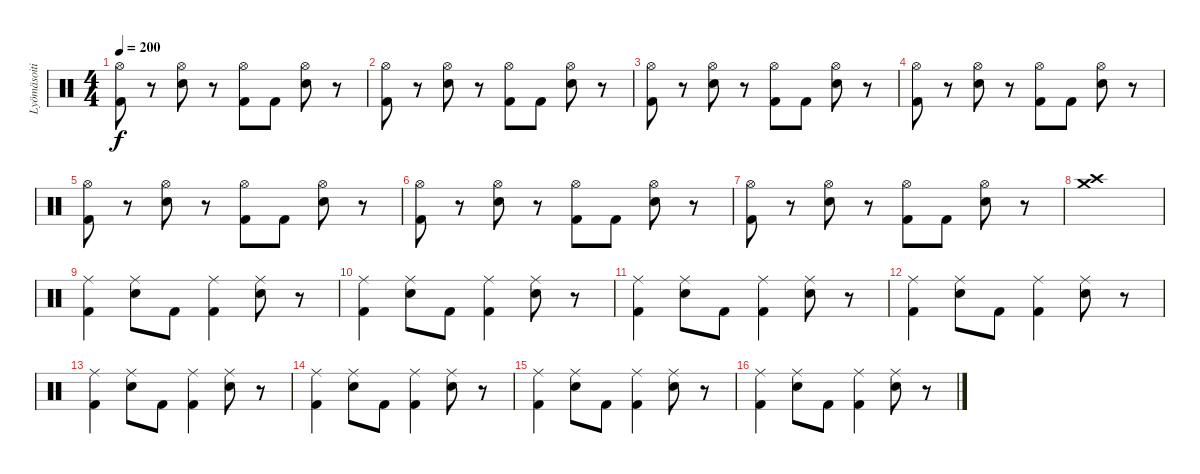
\track ("Lyömäsoitin" "Lyömäsoiti") {instrument percussion}
\staff {score}
\articulation defaults
\ts (4 4)
\tempo 200
\clef neutral
\ks c
("Hi-Hat (open)" "Kick (hit) 2").8{dy f} r.8 ("Hi-Hat (open)" "Snare (hit) 2").8 r.8 ("Hi-Hat (open)" "Kick (hit) 2").8 "Kick (hit) 2".8 ("Hi-Hat (open)" "Snare (hit) 2").8 r.8 |
("Hi-Hat (open)" "Kick (hit) 2").8 r.8 ("Hi-Hat (open)" "Snare (hit) 2").8 r.8 ("Hi-Hat (open)" "Kick (hit) 2").8 "Kick (hit) 2".8 ("Hi-Hat (open)" "Snare (hit) 2").8 r.8 |
("Hi-Hat (open)" "Kick (hit) 2").8 r.8 ("Hi-Hat (open)" "Snare (hit) 2").8 r.8 ("Hi-Hat (open)" "Kick (hit) 2").8 "Kick (hit) 2".8 ("Hi-Hat (open)" "Snare (hit) 2").8 r.8 |
("Hi-Hat (open)" "Kick (hit) 2").8 r.8 ("Hi-Hat (open)" "Snare (hit) 2").8 r.8 ("Hi-Hat (open)" "Kick (hit) 2").8 "Kick (hit) 2".8 ("Hi-Hat (open)" "Snare (hit) 2").8 r.8 |
("Hi-Hat (open)" "Kick (hit) 2").8 r.8 ("Hi-Hat (open)" "Snare (hit) 2").8 r.8 ("Hi-Hat (open)" "Kick (hit) 2").8 "Kick (hit) 2".8 ("Hi-Hat (open)" "Snare (hit) 2").8 r.8 |
("Hi-Hat (open)" "Kick (hit) 2").8 r.8 ("Hi-Hat (open)" "Snare (hit) 2").8 r.8 ("Hi-Hat (open)" "Kick (hit) 2").8 "Kick (hit) 2".8 ("Hi-Hat (open)" "Snare (hit) 2").8 r.8 |
("Hi-Hat (open)" "Kick (hit) 2").8 r.8 ("Hi-Hat (open)" "Snare (hit) 2").8 r.8 ("Hi-Hat (open)" "Kick (hit) 2").8 "Kick (hit) 2".8 ("Hi-Hat (open)" "Snare (hit) 2").8 r.8 |
("Crash high (hit)" "Crash medium (hit)").1 |
("Ride (middle)" "Kick (hit) 2").4 ("Ride (middle)" "Snare (hit) 2").8 "Kick (hit) 2".8 ("Ride (middle)" "Kick (hit) 2").4 ("Ride (middle)" "Snare (hit) 2").8 r.8 |
("Ride (middle)" "Kick (hit) 2").4 ("Ride (middle)" "Snare (hit) 2").8 "Kick (hit) 2".8 ("Ride (middle)" "Kick (hit) 2").4 ("Ride (middle)" "Snare (hit) 2").8 r.8 |
("Ride (middle)" "Kick (hit) 2").4 ("Ride (middle)" "Snare (hit) 2").8 "Kick (hit) 2".8 ("Ride (middle)" "Kick (hit) 2").4 ("Ride (middle)" "Snare (hit) 2").8 r.8 |
("Ride (middle)" "Kick (hit) 2").4 ("Ride (middle)" "Snare (hit) 2").8 "Kick (hit) 2".8 ("Ride (middle)" "Kick (hit) 2").4 ("Ride (middle)" "Snare (hit) 2").8 r.8 |
("Ride (middle)" "Kick (hit) 2").4 ("Ride (middle)" "Snare (hit) 2").8 "Kick (hit) 2".8 ("Ride (middle)" "Kick (hit) 2").4 ("Ride (middle)" "Snare (hit) 2").8 r.8 |
("Ride (middle)" "Kick (hit) 2").4 ("Ride (middle)" "Snare (hit) 2").8 "Kick (hit) 2".8 ("Ride (middle)" "Kick (hit) 2").4 ("Ride (middle)" "Snare (hit) 2").8 r.8 |
("Ride (middle)" "Kick (hit) 2").4 ("Ride (middle)" "Snare (hit) 2").8 "Kick (hit) 2".8 ("Ride (middle)" "Kick (hit) 2").4 ("Ride (middle)" "Snare (hit) 2").8 r.8 |
("Ride (middle)" "Kick (hit) 2").4 ("Ride (middle)" "Snare (hit) 2").8 "Kick (hit) 2".8 ("Ride (middle)" "Kick (hit) 2").4 ("Ride (middle)" "Snare (hit) 2").8 r.8
